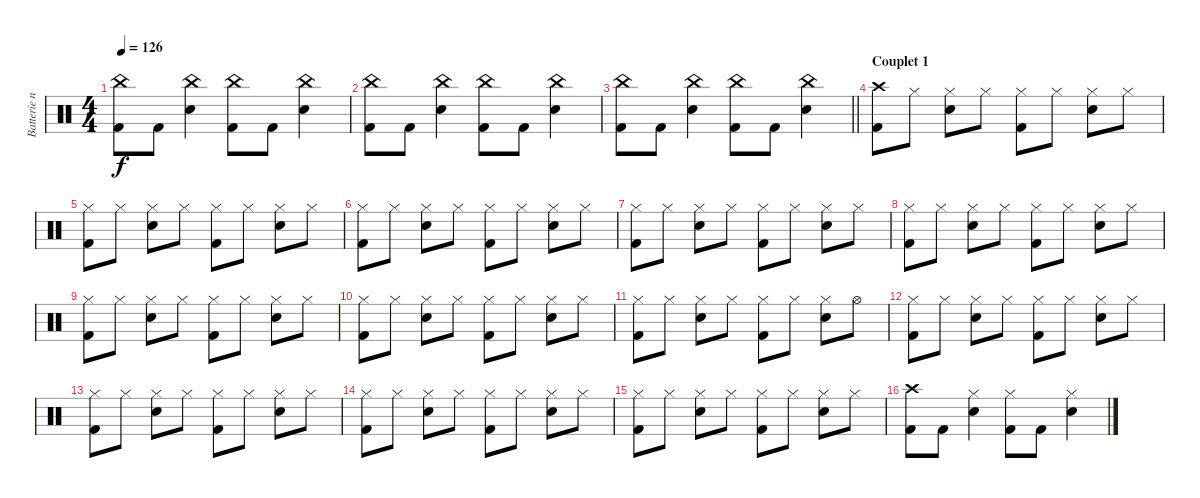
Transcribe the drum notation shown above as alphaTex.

\track ("Batterie n°3" "Batterie n") {instrument percussion}
\staff {score}
\articulation defaults
\ts (4 4)
\tempo 126
\clef neutral
\ks c
("China (hit)" "Kick (hit) 2").8{dy f} "Kick (hit) 2".8 ("China (hit)" "Snare (hit) 2").4 ("China (hit)" "Kick (hit) 2").8 "Kick (hit) 2".8 ("China (hit)" "Snare (hit) 2").4 |
("China (hit)" "Kick (hit) 2").8 "Kick (hit) 2".8 ("China (hit)" "Snare (hit) 2").4 ("China (hit)" "Kick (hit) 2").8 "Kick (hit) 2".8 ("China (hit)" "Snare (hit) 2").4 |
\barLineRight lightlight
("China (hit)" "Kick (hit) 2").8 "Kick (hit) 2".8 ("China (hit)" "Snare (hit) 2").4 ("China (hit)" "Kick (hit) 2").8 "Kick (hit) 2".8 ("China (hit)" "Snare (hit) 2").4 |
\section ("" "Couplet 1")
("Crash high (hit)" "Kick (hit) 2").8 "Hi-Hat (closed)".8 ("Hi-Hat (closed)" "Snare (hit) 2").8 "Hi-Hat (closed)".8 ("Hi-Hat (closed)" "Kick (hit) 2").8 "Hi-Hat (closed)".8 ("Hi-Hat (closed)" "Snare (hit) 2").8 "Hi-Hat (closed)".8 |
("Hi-Hat (closed)" "Kick (hit) 2").8 "Hi-Hat (closed)".8 ("Hi-Hat (closed)" "Snare (hit) 2").8 "Hi-Hat (closed)".8 ("Hi-Hat (closed)" "Kick (hit) 2").8 "Hi-Hat (closed)".8 ("Hi-Hat (closed)" "Snare (hit) 2").8 "Hi-Hat (closed)".8 |
("Hi-Hat (closed)" "Kick (hit) 2").8 "Hi-Hat (closed)".8 ("Hi-Hat (closed)" "Snare (hit) 2").8 "Hi-Hat (closed)".8 ("Hi-Hat (closed)" "Kick (hit) 2").8 "Hi-Hat (closed)".8 ("Hi-Hat (closed)" "Snare (hit) 2").8 "Hi-Hat (closed)".8 |
("Hi-Hat (closed)" "Kick (hit) 2").8 "Hi-Hat (closed)".8 ("Hi-Hat (closed)" "Snare (hit) 2").8 "Hi-Hat (closed)".8 ("Hi-Hat (closed)" "Kick (hit) 2").8 "Hi-Hat (closed)".8 ("Hi-Hat (closed)" "Snare (hit) 2").8 "Hi-Hat (closed)".8 |
("Hi-Hat (closed)" "Kick (hit) 2").8 "Hi-Hat (closed)".8 ("Hi-Hat (closed)" "Snare (hit) 2").8 "Hi-Hat (closed)".8 ("Hi-Hat (closed)" "Kick (hit) 2").8 "Hi-Hat (closed)".8 ("Hi-Hat (closed)" "Snare (hit) 2").8 "Hi-Hat (closed)".8 |
("Hi-Hat (closed)" "Kick (hit) 2").8 "Hi-Hat (closed)".8 ("Hi-Hat (closed)" "Snare (hit) 2").8 "Hi-Hat (closed)".8 ("Hi-Hat (closed)" "Kick (hit) 2").8 "Hi-Hat (closed)".8 ("Hi-Hat (closed)" "Snare (hit) 2").8 "Hi-Hat (closed)".8 |
("Hi-Hat (closed)" "Kick (hit) 2").8 "Hi-Hat (closed)".8 ("Hi-Hat (closed)" "Snare (hit) 2").8 "Hi-Hat (closed)".8 ("Hi-Hat (closed)" "Kick (hit) 2").8 "Hi-Hat (closed)".8 ("Hi-Hat (closed)" "Snare (hit) 2").8 "Hi-Hat (closed)".8 |
("Hi-Hat (closed)" "Kick (hit) 2").8 "Hi-Hat (closed)".8 ("Hi-Hat (closed)" "Snare (hit) 2").8 "Hi-Hat (closed)".8 ("Hi-Hat (closed)" "Kick (hit) 2").8 "Hi-Hat (closed)".8 ("Hi-Hat (closed)" "Snare (hit) 2").8 "Hi-Hat (open)".8 |
("Hi-Hat (closed)" "Kick (hit) 2").8 "Hi-Hat (closed)".8 ("Hi-Hat (closed)" "Snare (hit) 2").8 "Hi-Hat (closed)".8 ("Hi-Hat (closed)" "Kick (hit) 2").8 "Hi-Hat (closed)".8 ("Hi-Hat (closed)" "Snare (hit) 2").8 "Hi-Hat (closed)".8 |
("Hi-Hat (closed)" "Kick (hit) 2").8 "Hi-Hat (closed)".8 ("Hi-Hat (closed)" "Snare (hit) 2").8 "Hi-Hat (closed)".8 ("Hi-Hat (closed)" "Kick (hit) 2").8 "Hi-Hat (closed)".8 ("Hi-Hat (closed)" "Snare (hit) 2").8 "Hi-Hat (closed)".8 |
("Hi-Hat (closed)" "Kick (hit) 2").8 "Hi-Hat (closed)".8 ("Hi-Hat (closed)" "Snare (hit) 2").8 "Hi-Hat (closed)".8 ("Hi-Hat (closed)" "Kick (hit) 2").8 "Hi-Hat (closed)".8 ("Hi-Hat (closed)" "Snare (hit) 2").8 "Hi-Hat (closed)".8 |
("Hi-Hat (closed)" "Kick (hit) 2").8 "Hi-Hat (closed)".8 ("Hi-Hat (closed)" "Snare (hit) 2").8 "Hi-Hat (closed)".8 ("Hi-Hat (closed)" "Kick (hit) 2").8 "Hi-Hat (closed)".8 ("Hi-Hat (closed)" "Snare (hit) 2").8 "Hi-Hat (closed)".8 |
("Crash high (hit)" "Kick (hit) 2").8 "Kick (hit) 2".8 ("Hi-Hat (closed)" "Snare (hit) 2").4 ("Hi-Hat (closed)" "Kick (hit) 2").8 "Kick (hit) 2".8 ("Hi-Hat (closed)" "Snare (hit) 2").4
